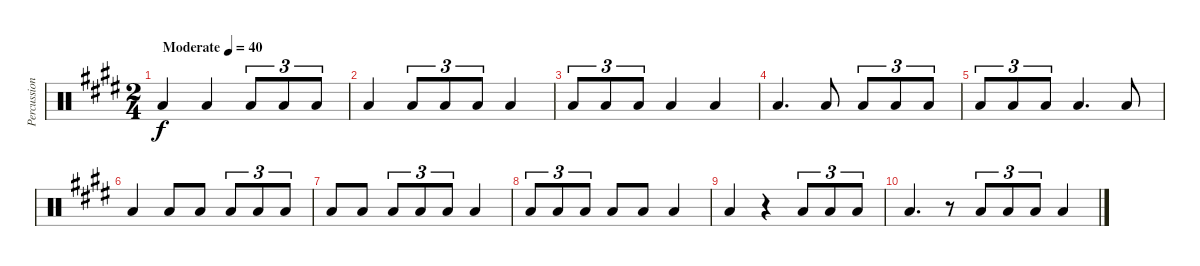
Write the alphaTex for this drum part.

\track ("Percussion" "Percussion") {instrument percussion}
\staff {score}
\articulation defaults
\ts (2 4)
\tempo (40 "Moderate")
\clef neutral
\ks e "Low Floor Tom (hit)".4{dy f} "Low Floor Tom (hit)".4 "Low Floor Tom (hit)".8{tu (3 2)} "Low Floor Tom (hit)".8{tu (3 2)} "Low Floor Tom (hit)".8{tu (3 2)}
|
"Low Floor Tom (hit)".4 "Low Floor Tom (hit)".8{tu (3 2)} "Low Floor Tom (hit)".8{tu (3 2)} "Low Floor Tom (hit)".8{tu (3 2)} "Low Floor Tom (hit)".4 |
"Low Floor Tom (hit)".8{tu (3 2)} "Low Floor Tom (hit)".8{tu (3 2)} "Low Floor Tom (hit)".8{tu (3 2)} "Low Floor Tom (hit)".4 "Low Floor Tom (hit)".4 |
"Low Floor Tom (hit)".4{d} "Low Floor Tom (hit)".8 "Low Floor Tom (hit)".8{tu (3 2)} "Low Floor Tom (hit)".8{tu (3 2)} "Low Floor Tom (hit)".8{tu (3 2)} |
"Low Floor Tom (hit)".8{tu (3 2)} "Low Floor Tom (hit)".8{tu (3 2)} "Low Floor Tom (hit)".8{tu (3 2)} "Low Floor Tom (hit)".4{d} "Low Floor Tom (hit)".8 |
"Low Floor Tom (hit)".4 "Low Floor Tom (hit)".8 "Low Floor Tom (hit)".8 "Low Floor Tom (hit)".8{tu (3 2)} "Low Floor Tom (hit)".8{tu (3 2)} "Low Floor Tom (hit)".8{tu (3 2)} |
"Low Floor Tom (hit)".8 "Low Floor Tom (hit)".8 "Low Floor Tom (hit)".8{tu (3 2)} "Low Floor Tom (hit)".8{tu (3 2)} "Low Floor Tom (hit)".8{tu (3 2)} "Low Floor Tom (hit)".4 |
"Low Floor Tom (hit)".8{tu (3 2)} "Low Floor Tom (hit)".8{tu (3 2)} "Low Floor Tom (hit)".8{tu (3 2)} "Low Floor Tom (hit)".8 "Low Floor Tom (hit)".8 "Low Floor Tom (hit)".4 |
"Low Floor Tom (hit)".4 r.4 "Low Floor Tom (hit)".8{tu (3 2)} "Low Floor Tom (hit)".8{tu (3 2)} "Low Floor Tom (hit)".8{tu (3 2)} |
"Low Floor Tom (hit)".4{d} r.8 "Low Floor Tom (hit)".8{tu (3 2)} "Low Floor Tom (hit)".8{tu (3 2)} "Low Floor Tom (hit)".8{tu (3 2)} "Low Floor Tom (hit)".4
